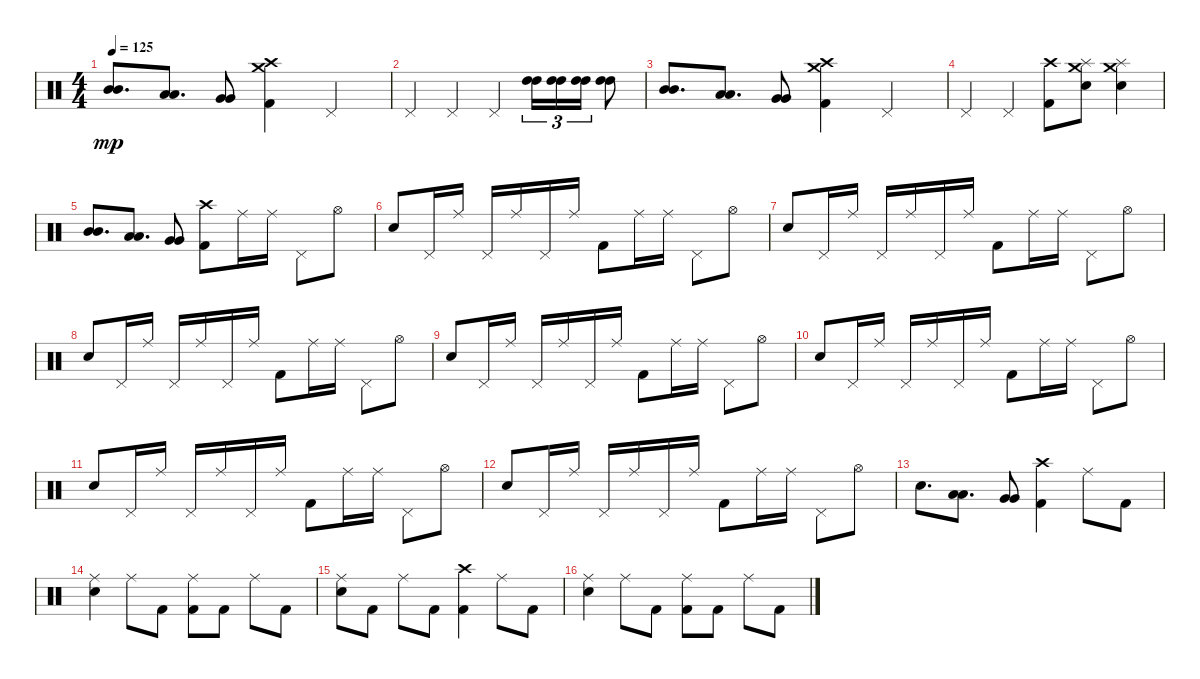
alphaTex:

\track "" {instrument percussion}
\staff {score}
\articulation defaults
\ts (4 4)
\tempo 125
\clef neutral
\ks c
("Mid Tom (hit)" "Mid Tom (hit)").8{d dy mp} ("Low Tom (hit)" "Low Tom (hit)").8{d} ("Very Low Tom (hit)" "Very Low Tom (hit)").8 ("Kick (hit) 2" "Crash medium (hit)" "Crash high (hit)").4 "Pedal Hi-Hat (hit)".4 |
"Pedal Hi-Hat (hit)".4 "Pedal Hi-Hat (hit)".4 "Pedal Hi-Hat (hit)".4 ("High Tom (hit)" "High Tom (hit)").16{tu (3 2)} ("High Tom (hit)" "High Tom (hit)").16{tu (3 2)} ("High Tom (hit)" "High Tom (hit)").16{tu (3 2)} ("High Tom (hit)" "High Tom (hit)").8 |
("Mid Tom (hit)" "Mid Tom (hit)").8{d} ("Low Tom (hit)" "Low Tom (hit)").8{d} ("Very Low Tom (hit)" "Very Low Tom (hit)").8 ("Kick (hit) 2" "Crash medium (hit)" "Crash high (hit)").4 "Pedal Hi-Hat (hit)".4 |
"Pedal Hi-Hat (hit)".4 "Pedal Hi-Hat (hit)".4 ("Kick (hit) 2" "Crash high (hit)").8 ("Electric Snare (hit)" "Splash (hit)" "Crash medium (hit)").8 ("Electric Snare (hit)" "Splash (hit)" "Crash medium (hit)").4 |
("Mid Tom (hit)" "Mid Tom (hit)").8{d} ("Low Tom (hit)" "Low Tom (hit)").8{d} ("Very Low Tom (hit)" "Very Low Tom (hit)").8 ("Kick (hit) 2" "Crash high (hit)").8 "Ride (middle)".16 "Ride (middle)".16 "Pedal Hi-Hat (hit)".8 "Hi-Hat (open)".8 |
"Electric Snare (hit)".8 "Pedal Hi-Hat (hit)".16 "Ride (middle)".16 "Pedal Hi-Hat (hit)".16 "Ride (middle)".16 "Pedal Hi-Hat (hit)".16 "Ride (middle)".16 "Kick (hit) 2".8 "Ride (middle)".16 "Ride (middle)".16 "Pedal Hi-Hat (hit)".8 "Hi-Hat (open)".8 |
"Electric Snare (hit)".8 "Pedal Hi-Hat (hit)".16 "Ride (middle)".16 "Pedal Hi-Hat (hit)".16 "Ride (middle)".16 "Pedal Hi-Hat (hit)".16 "Ride (middle)".16 "Kick (hit) 2".8 "Ride (middle)".16 "Ride (middle)".16 "Pedal Hi-Hat (hit)".8 "Hi-Hat (open)".8 |
"Electric Snare (hit)".8 "Pedal Hi-Hat (hit)".16 "Ride (middle)".16 "Pedal Hi-Hat (hit)".16 "Ride (middle)".16 "Pedal Hi-Hat (hit)".16 "Ride (middle)".16 "Kick (hit) 2".8 "Ride (middle)".16 "Ride (middle)".16 "Pedal Hi-Hat (hit)".8 "Hi-Hat (open)".8 |
"Electric Snare (hit)".8 "Pedal Hi-Hat (hit)".16 "Ride (middle)".16 "Pedal Hi-Hat (hit)".16 "Ride (middle)".16 "Pedal Hi-Hat (hit)".16 "Ride (middle)".16 "Kick (hit) 2".8 "Ride (middle)".16 "Ride (middle)".16 "Pedal Hi-Hat (hit)".8 "Hi-Hat (open)".8 |
"Electric Snare (hit)".8 "Pedal Hi-Hat (hit)".16 "Ride (middle)".16 "Pedal Hi-Hat (hit)".16 "Ride (middle)".16 "Pedal Hi-Hat (hit)".16 "Ride (middle)".16 "Kick (hit) 2".8 "Ride (middle)".16 "Ride (middle)".16 "Pedal Hi-Hat (hit)".8 "Hi-Hat (open)".8 |
"Electric Snare (hit)".8 "Pedal Hi-Hat (hit)".16 "Ride (middle)".16 "Pedal Hi-Hat (hit)".16 "Ride (middle)".16 "Pedal Hi-Hat (hit)".16 "Ride (middle)".16 "Kick (hit) 2".8 "Ride (middle)".16 "Ride (middle)".16 "Pedal Hi-Hat (hit)".8 "Hi-Hat (open)".8 |
"Electric Snare (hit)".8 "Pedal Hi-Hat (hit)".16 "Ride (middle)".16 "Pedal Hi-Hat (hit)".16 "Ride (middle)".16 "Pedal Hi-Hat (hit)".16 "Ride (middle)".16 "Kick (hit) 2".8 "Ride (middle)".16 "Ride (middle)".16 "Pedal Hi-Hat (hit)".8 "Hi-Hat (open)".8 |
"Electric Snare (hit)".8{d} ("Low Tom (hit)" "Low Tom (hit)").8{d} ("Very Low Tom (hit)" "Very Low Tom (hit)").8 ("Kick (hit) 2" "Crash high (hit)").4 "Ride (middle)".8 "Kick (hit) 2".8 |
("Electric Snare (hit)" "Ride (middle)").4 "Ride (middle)".8 "Kick (hit) 2".8 ("Kick (hit) 2" "Ride (middle)").8 "Kick (hit) 2".8 "Ride (middle)".8 "Kick (hit) 2".8 |
("Electric Snare (hit)" "Ride (middle)").8 "Kick (hit) 2".8 "Ride (middle)".8 "Kick (hit) 2".8 ("Kick (hit) 2" "Crash high (hit)").4 "Ride (middle)".8 "Kick (hit) 2".8 |
("Electric Snare (hit)" "Ride (middle)").4 "Ride (middle)".8 "Kick (hit) 2".8 ("Kick (hit) 2" "Ride (middle)").8 "Kick (hit) 2".8 "Ride (middle)".8 "Kick (hit) 2".8
